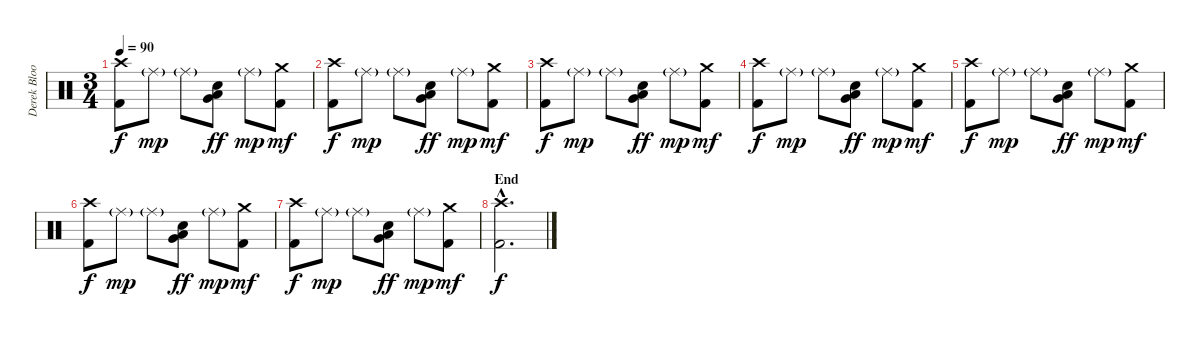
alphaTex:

\track ("Derek Bloom (Drums)" "Derek Bloo") {instrument percussion}
\staff {score}
\articulation defaults
\ts (3 4)
\tempo 90
\clef neutral
\ks c
("Crash high (hit)" "Kick (hit) 2").8{dy f} "Ride (middle)"{g}.8{dy mp} "Ride (middle)"{g}.8 ("Electric Snare (hit)" "Low Tom (hit)" "Very Low Tom (hit)").8{dy ff} "Ride (middle)"{g}.8{dy mp} ("Crash medium (hit)" "Kick (hit) 2").8{dy mf} |
("Crash high (hit)" "Kick (hit) 2").8{dy f} "Ride (middle)"{g}.8{dy mp} "Ride (middle)"{g}.8 ("Electric Snare (hit)" "Low Tom (hit)" "Very Low Tom (hit)").8{dy ff} "Ride (middle)"{g}.8{dy mp} ("Crash medium (hit)" "Kick (hit) 2").8{dy mf} |
("Crash high (hit)" "Kick (hit) 2").8{dy f} "Ride (middle)"{g}.8{dy mp} "Ride (middle)"{g}.8 ("Electric Snare (hit)" "Low Tom (hit)" "Very Low Tom (hit)").8{dy ff} "Ride (middle)"{g}.8{dy mp} ("Crash medium (hit)" "Kick (hit) 2").8{dy mf} |
("Crash high (hit)" "Kick (hit) 2").8{dy f} "Ride (middle)"{g}.8{dy mp} "Ride (middle)"{g}.8 ("Electric Snare (hit)" "Low Tom (hit)" "Very Low Tom (hit)").8{dy ff} "Ride (middle)"{g}.8{dy mp} ("Crash medium (hit)" "Kick (hit) 2").8{dy mf} |
("Crash high (hit)" "Kick (hit) 2").8{dy f} "Ride (middle)"{g}.8{dy mp} "Ride (middle)"{g}.8 ("Electric Snare (hit)" "Low Tom (hit)" "Very Low Tom (hit)").8{dy ff} "Ride (middle)"{g}.8{dy mp} ("Crash medium (hit)" "Kick (hit) 2").8{dy mf} |
("Crash high (hit)" "Kick (hit) 2").8{dy f} "Ride (middle)"{g}.8{dy mp} "Ride (middle)"{g}.8 ("Electric Snare (hit)" "Low Tom (hit)" "Very Low Tom (hit)").8{dy ff} "Ride (middle)"{g}.8{dy mp} ("Crash medium (hit)" "Kick (hit) 2").8{dy mf} |
("Crash high (hit)" "Kick (hit) 2").8{dy f} "Ride (middle)"{g}.8{dy mp} "Ride (middle)"{g}.8 ("Electric Snare (hit)" "Low Tom (hit)" "Very Low Tom (hit)").8{dy ff} "Ride (middle)"{g}.8{dy mp} ("Crash medium (hit)" "Kick (hit) 2").8{dy mf} |
\section ("" "End")
("Crash high (hit)"{hac} "Kick (hit) 2"{hac}).2{d dy f}
